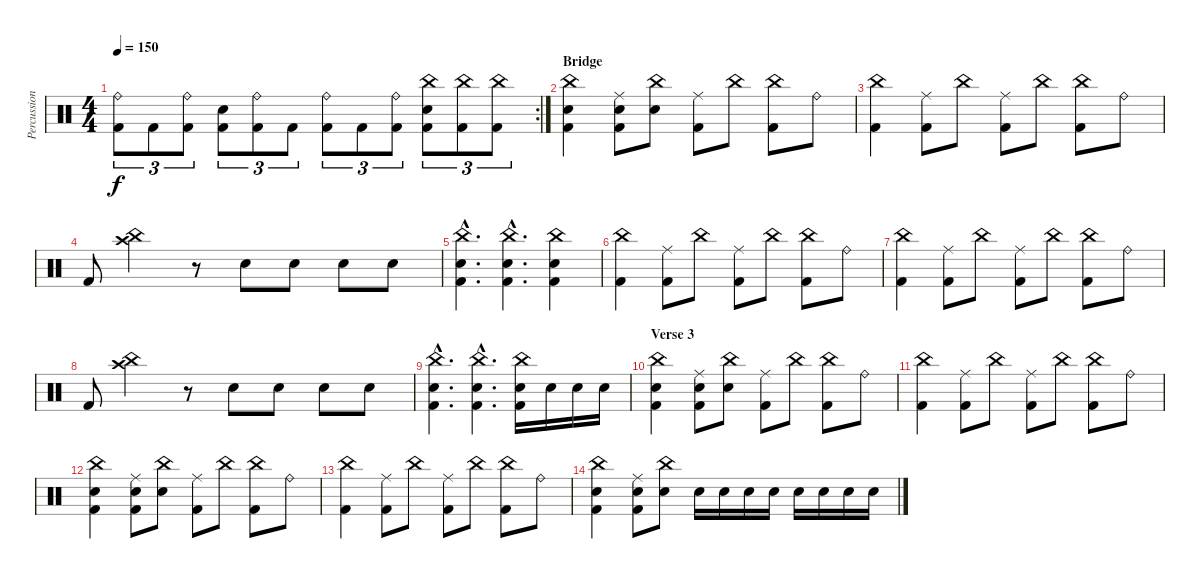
\track ("Percussions" "Percussion") {instrument percussion}
\staff {score}
\articulation defaults
\rc 2
\ts (4 4)
\tempo 150
\clef neutral
\ks c
("Ride (bell)" "Kick (hit) 2").8{tu (3 2) dy f} "Kick (hit) 2".8{tu (3 2)} ("Ride (bell)" "Kick (hit) 2").8{tu (3 2)} ("Electric Snare (hit)" "Kick (hit) 2").8{tu (3 2)} ("Ride (bell)" "Kick (hit) 2").8{tu (3 2)} "Kick (hit) 2".8{tu (3 2)} ("Ride (bell)" "Kick (hit) 2").8{tu (3 2)} "Kick (hit) 2".8{tu (3 2)} ("Ride (bell)" "Kick (hit) 2").8{tu (3 2)} ("China (hit)" "Electric Snare (hit)" "Kick (hit) 2").8{tu (3 2)} ("China (hit)" "Kick (hit) 2").8{tu (3 2)} ("China (hit)" "Kick (hit) 2").8{tu (3 2)} |
\section ("" "Bridge")
("China (hit)" "Electric Snare (hit)" "Kick (hit) 2").4 ("Ride (middle)" "Electric Snare (hit)" "Kick (hit) 2").8 ("China (hit)" "Electric Snare (hit)").8 ("Ride (middle)" "Kick (hit) 2").8 "China (hit)".8 ("China (hit)" "Kick (hit) 2").8 "Ride (bell)".8 |
("China (hit)" "Kick (hit) 2").4 ("Ride (middle)" "Kick (hit) 2").8 "China (hit)".8 ("Ride (middle)" "Kick (hit) 2").8 "China (hit)".8 ("China (hit)" "Kick (hit) 2").8 "Ride (bell)".8 |
"Kick (hit) 2".8 ("Crash high (hit)" "China (hit)").4 r.8 "Electric Snare (hit)".8 "Electric Snare (hit)".8 "Electric Snare (hit)".8 "Electric Snare (hit)".8 |
("China (hit)"{hac} "Electric Snare (hit)"{hac} "Kick (hit) 2"{hac}).4{d} ("China (hit)"{hac} "Electric Snare (hit)"{hac} "Kick (hit) 2"{hac}).4{d} ("China (hit)" "Electric Snare (hit)" "Kick (hit) 2").4 |
("China (hit)" "Kick (hit) 2").4 ("Ride (middle)" "Kick (hit) 2").8 "China (hit)".8 ("Ride (middle)" "Kick (hit) 2").8 "China (hit)".8 ("China (hit)" "Kick (hit) 2").8 "Ride (bell)".8 |
("China (hit)" "Kick (hit) 2").4 ("Ride (middle)" "Kick (hit) 2").8 "China (hit)".8 ("Ride (middle)" "Kick (hit) 2").8 "China (hit)".8 ("China (hit)" "Kick (hit) 2").8 "Ride (bell)".8 |
"Kick (hit) 2".8 ("Crash high (hit)" "China (hit)").4 r.8 "Electric Snare (hit)".8 "Electric Snare (hit)".8 "Electric Snare (hit)".8 "Electric Snare (hit)".8 |
("China (hit)"{hac} "Electric Snare (hit)"{hac} "Kick (hit) 2"{hac}).4{d} ("China (hit)"{hac} "Electric Snare (hit)"{hac} "Kick (hit) 2"{hac}).4{d} ("China (hit)" "Electric Snare (hit)" "Kick (hit) 2").16 "Electric Snare (hit)".16 "Electric Snare (hit)".16 "Electric Snare (hit)".16 |
\section ("" "Verse 3")
("China (hit)" "Electric Snare (hit)" "Kick (hit) 2").4 ("Ride (middle)" "Electric Snare (hit)" "Kick (hit) 2").8 ("China (hit)" "Electric Snare (hit)").8 ("Ride (middle)" "Kick (hit) 2").8 "China (hit)".8 ("China (hit)" "Kick (hit) 2").8 "Ride (bell)".8 |
("China (hit)" "Kick (hit) 2").4 ("Ride (middle)" "Kick (hit) 2").8 "China (hit)".8 ("Ride (middle)" "Kick (hit) 2").8 "China (hit)".8 ("China (hit)" "Kick (hit) 2").8 "Ride (bell)".8 |
("China (hit)" "Electric Snare (hit)" "Kick (hit) 2").4 ("Ride (middle)" "Electric Snare (hit)" "Kick (hit) 2").8 ("China (hit)" "Electric Snare (hit)").8 ("Ride (middle)" "Kick (hit) 2").8 "China (hit)".8 ("China (hit)" "Kick (hit) 2").8 "Ride (bell)".8 |
("China (hit)" "Kick (hit) 2").4 ("Ride (middle)" "Kick (hit) 2").8 "China (hit)".8 ("Ride (middle)" "Kick (hit) 2").8 "China (hit)".8 ("China (hit)" "Kick (hit) 2").8 "Ride (bell)".8 |
("China (hit)" "Electric Snare (hit)" "Kick (hit) 2").4 ("Ride (middle)" "Electric Snare (hit)" "Kick (hit) 2").8 ("China (hit)" "Electric Snare (hit)").8 "Electric Snare (hit)".16 "Electric Snare (hit)".16 "Electric Snare (hit)".16 "Electric Snare (hit)".16 "Electric Snare (hit)".16 "Electric Snare (hit)".16 "Electric Snare (hit)".16 "Electric Snare (hit)".16
